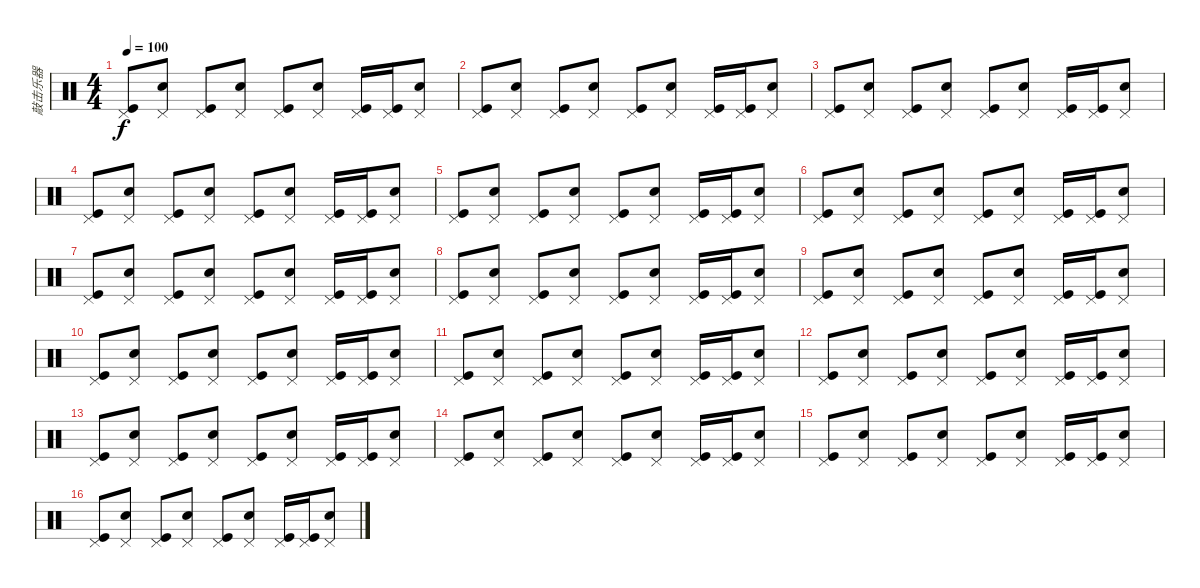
\track ("敲击乐器" "敲击乐器") {instrument percussion}
\staff {score}
\articulation defaults
\ts (4 4)
\tempo 100
\clef neutral
\ks c
("Pedal Hi-Hat (hit)" "Kick (hit)").8{dy f} ("Pedal Hi-Hat (hit)" "Snare (hit) 2").8 ("Pedal Hi-Hat (hit)" "Kick (hit)").8 ("Pedal Hi-Hat (hit)" "Snare (hit) 2").8 ("Pedal Hi-Hat (hit)" "Kick (hit)").8 ("Pedal Hi-Hat (hit)" "Snare (hit) 2").8 ("Pedal Hi-Hat (hit)" "Kick (hit)").16 ("Pedal Hi-Hat (hit)" "Kick (hit)").16 ("Pedal Hi-Hat (hit)" "Snare (hit) 2").8 |
("Pedal Hi-Hat (hit)" "Kick (hit)").8 ("Pedal Hi-Hat (hit)" "Snare (hit) 2").8 ("Pedal Hi-Hat (hit)" "Kick (hit)").8 ("Pedal Hi-Hat (hit)" "Snare (hit) 2").8 ("Pedal Hi-Hat (hit)" "Kick (hit)").8 ("Pedal Hi-Hat (hit)" "Snare (hit) 2").8 ("Pedal Hi-Hat (hit)" "Kick (hit)").16 ("Pedal Hi-Hat (hit)" "Kick (hit)").16 ("Pedal Hi-Hat (hit)" "Snare (hit) 2").8 |
("Pedal Hi-Hat (hit)" "Kick (hit)").8 ("Pedal Hi-Hat (hit)" "Snare (hit) 2").8 ("Pedal Hi-Hat (hit)" "Kick (hit)").8 ("Pedal Hi-Hat (hit)" "Snare (hit) 2").8 ("Pedal Hi-Hat (hit)" "Kick (hit)").8 ("Pedal Hi-Hat (hit)" "Snare (hit) 2").8 ("Pedal Hi-Hat (hit)" "Kick (hit)").16 ("Pedal Hi-Hat (hit)" "Kick (hit)").16 ("Pedal Hi-Hat (hit)" "Snare (hit) 2").8 |
("Pedal Hi-Hat (hit)" "Kick (hit)").8 ("Pedal Hi-Hat (hit)" "Snare (hit) 2").8 ("Pedal Hi-Hat (hit)" "Kick (hit)").8 ("Pedal Hi-Hat (hit)" "Snare (hit) 2").8 ("Pedal Hi-Hat (hit)" "Kick (hit)").8 ("Pedal Hi-Hat (hit)" "Snare (hit) 2").8 ("Pedal Hi-Hat (hit)" "Kick (hit)").16 ("Pedal Hi-Hat (hit)" "Kick (hit)").16 ("Pedal Hi-Hat (hit)" "Snare (hit) 2").8 |
("Pedal Hi-Hat (hit)" "Kick (hit)").8 ("Pedal Hi-Hat (hit)" "Snare (hit) 2").8 ("Pedal Hi-Hat (hit)" "Kick (hit)").8 ("Pedal Hi-Hat (hit)" "Snare (hit) 2").8 ("Pedal Hi-Hat (hit)" "Kick (hit)").8 ("Pedal Hi-Hat (hit)" "Snare (hit) 2").8 ("Pedal Hi-Hat (hit)" "Kick (hit)").16 ("Pedal Hi-Hat (hit)" "Kick (hit)").16 ("Pedal Hi-Hat (hit)" "Snare (hit) 2").8 |
("Pedal Hi-Hat (hit)" "Kick (hit)").8 ("Pedal Hi-Hat (hit)" "Snare (hit) 2").8 ("Pedal Hi-Hat (hit)" "Kick (hit)").8 ("Pedal Hi-Hat (hit)" "Snare (hit) 2").8 ("Pedal Hi-Hat (hit)" "Kick (hit)").8 ("Pedal Hi-Hat (hit)" "Snare (hit) 2").8 ("Pedal Hi-Hat (hit)" "Kick (hit)").16 ("Pedal Hi-Hat (hit)" "Kick (hit)").16 ("Pedal Hi-Hat (hit)" "Snare (hit) 2").8 |
("Pedal Hi-Hat (hit)" "Kick (hit)").8 ("Pedal Hi-Hat (hit)" "Snare (hit) 2").8 ("Pedal Hi-Hat (hit)" "Kick (hit)").8 ("Pedal Hi-Hat (hit)" "Snare (hit) 2").8 ("Pedal Hi-Hat (hit)" "Kick (hit)").8 ("Pedal Hi-Hat (hit)" "Snare (hit) 2").8 ("Pedal Hi-Hat (hit)" "Kick (hit)").16 ("Pedal Hi-Hat (hit)" "Kick (hit)").16 ("Pedal Hi-Hat (hit)" "Snare (hit) 2").8 |
("Pedal Hi-Hat (hit)" "Kick (hit)").8 ("Pedal Hi-Hat (hit)" "Snare (hit) 2").8 ("Pedal Hi-Hat (hit)" "Kick (hit)").8 ("Pedal Hi-Hat (hit)" "Snare (hit) 2").8 ("Pedal Hi-Hat (hit)" "Kick (hit)").8 ("Pedal Hi-Hat (hit)" "Snare (hit) 2").8 ("Pedal Hi-Hat (hit)" "Kick (hit)").16 ("Pedal Hi-Hat (hit)" "Kick (hit)").16 ("Pedal Hi-Hat (hit)" "Snare (hit) 2").8 |
("Pedal Hi-Hat (hit)" "Kick (hit)").8 ("Pedal Hi-Hat (hit)" "Snare (hit) 2").8 ("Pedal Hi-Hat (hit)" "Kick (hit)").8 ("Pedal Hi-Hat (hit)" "Snare (hit) 2").8 ("Pedal Hi-Hat (hit)" "Kick (hit)").8 ("Pedal Hi-Hat (hit)" "Snare (hit) 2").8 ("Pedal Hi-Hat (hit)" "Kick (hit)").16 ("Pedal Hi-Hat (hit)" "Kick (hit)").16 ("Pedal Hi-Hat (hit)" "Snare (hit) 2").8 |
("Pedal Hi-Hat (hit)" "Kick (hit)").8 ("Pedal Hi-Hat (hit)" "Snare (hit) 2").8 ("Pedal Hi-Hat (hit)" "Kick (hit)").8 ("Pedal Hi-Hat (hit)" "Snare (hit) 2").8 ("Pedal Hi-Hat (hit)" "Kick (hit)").8 ("Pedal Hi-Hat (hit)" "Snare (hit) 2").8 ("Pedal Hi-Hat (hit)" "Kick (hit)").16 ("Pedal Hi-Hat (hit)" "Kick (hit)").16 ("Pedal Hi-Hat (hit)" "Snare (hit) 2").8 |
("Pedal Hi-Hat (hit)" "Kick (hit)").8 ("Pedal Hi-Hat (hit)" "Snare (hit) 2").8 ("Pedal Hi-Hat (hit)" "Kick (hit)").8 ("Pedal Hi-Hat (hit)" "Snare (hit) 2").8 ("Pedal Hi-Hat (hit)" "Kick (hit)").8 ("Pedal Hi-Hat (hit)" "Snare (hit) 2").8 ("Pedal Hi-Hat (hit)" "Kick (hit)").16 ("Pedal Hi-Hat (hit)" "Kick (hit)").16 ("Pedal Hi-Hat (hit)" "Snare (hit) 2").8 |
("Pedal Hi-Hat (hit)" "Kick (hit)").8 ("Pedal Hi-Hat (hit)" "Snare (hit) 2").8 ("Pedal Hi-Hat (hit)" "Kick (hit)").8 ("Pedal Hi-Hat (hit)" "Snare (hit) 2").8 ("Pedal Hi-Hat (hit)" "Kick (hit)").8 ("Pedal Hi-Hat (hit)" "Snare (hit) 2").8 ("Pedal Hi-Hat (hit)" "Kick (hit)").16 ("Pedal Hi-Hat (hit)" "Kick (hit)").16 ("Pedal Hi-Hat (hit)" "Snare (hit) 2").8 |
("Pedal Hi-Hat (hit)" "Kick (hit)").8 ("Pedal Hi-Hat (hit)" "Snare (hit) 2").8 ("Pedal Hi-Hat (hit)" "Kick (hit)").8 ("Pedal Hi-Hat (hit)" "Snare (hit) 2").8 ("Pedal Hi-Hat (hit)" "Kick (hit)").8 ("Pedal Hi-Hat (hit)" "Snare (hit) 2").8 ("Pedal Hi-Hat (hit)" "Kick (hit)").16 ("Pedal Hi-Hat (hit)" "Kick (hit)").16 ("Pedal Hi-Hat (hit)" "Snare (hit) 2").8 |
("Pedal Hi-Hat (hit)" "Kick (hit)").8 ("Pedal Hi-Hat (hit)" "Snare (hit) 2").8 ("Pedal Hi-Hat (hit)" "Kick (hit)").8 ("Pedal Hi-Hat (hit)" "Snare (hit) 2").8 ("Pedal Hi-Hat (hit)" "Kick (hit)").8 ("Pedal Hi-Hat (hit)" "Snare (hit) 2").8 ("Pedal Hi-Hat (hit)" "Kick (hit)").16 ("Pedal Hi-Hat (hit)" "Kick (hit)").16 ("Pedal Hi-Hat (hit)" "Snare (hit) 2").8 |
("Pedal Hi-Hat (hit)" "Kick (hit)").8 ("Pedal Hi-Hat (hit)" "Snare (hit) 2").8 ("Pedal Hi-Hat (hit)" "Kick (hit)").8 ("Pedal Hi-Hat (hit)" "Snare (hit) 2").8 ("Pedal Hi-Hat (hit)" "Kick (hit)").8 ("Pedal Hi-Hat (hit)" "Snare (hit) 2").8 ("Pedal Hi-Hat (hit)" "Kick (hit)").16 ("Pedal Hi-Hat (hit)" "Kick (hit)").16 ("Pedal Hi-Hat (hit)" "Snare (hit) 2").8 |
("Pedal Hi-Hat (hit)" "Kick (hit)").8 ("Pedal Hi-Hat (hit)" "Snare (hit) 2").8 ("Pedal Hi-Hat (hit)" "Kick (hit)").8 ("Pedal Hi-Hat (hit)" "Snare (hit) 2").8 ("Pedal Hi-Hat (hit)" "Kick (hit)").8 ("Pedal Hi-Hat (hit)" "Snare (hit) 2").8 ("Pedal Hi-Hat (hit)" "Kick (hit)").16 ("Pedal Hi-Hat (hit)" "Kick (hit)").16 ("Pedal Hi-Hat (hit)" "Snare (hit) 2").8
